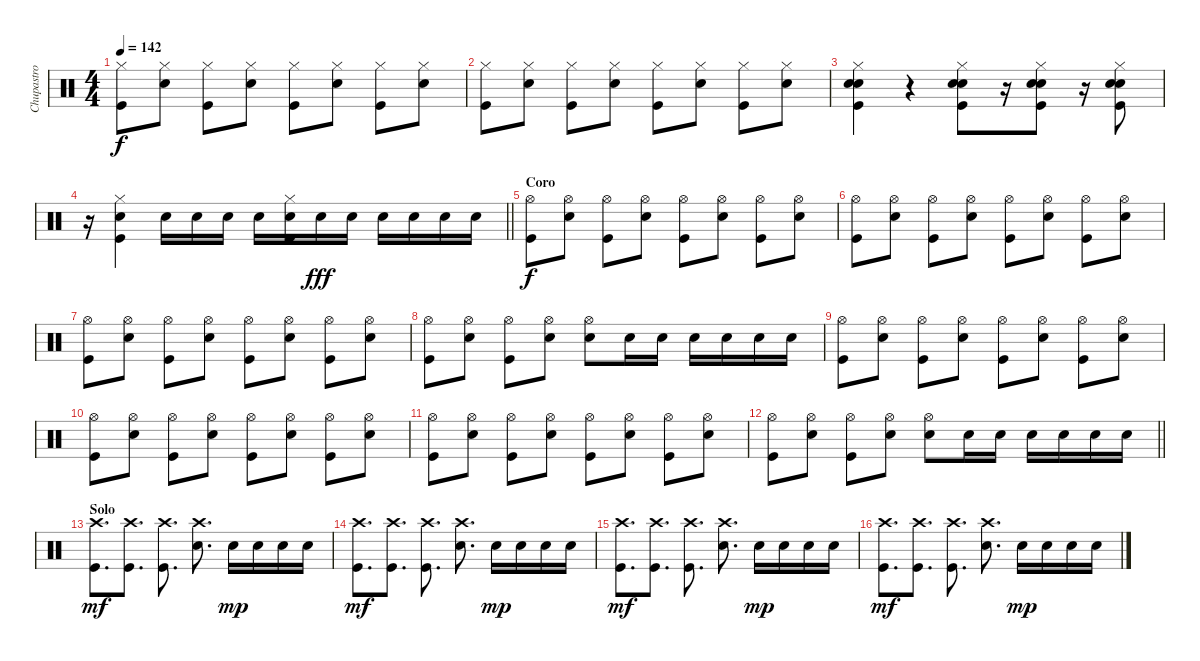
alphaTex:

\track ("Chupastro" "Chupastro") {instrument percussion}
\staff {score}
\articulation defaults
\ts (4 4)
\tempo 142
\clef neutral
\ks c
("Hi-Hat (closed)" "Kick (hit)").8{dy f} ("Hi-Hat (closed)" "Snare (hit) 2").8 ("Hi-Hat (closed)" "Kick (hit)").8 ("Hi-Hat (closed)" "Snare (hit) 2").8 ("Hi-Hat (closed)" "Kick (hit)").8 ("Hi-Hat (closed)" "Snare (hit) 2").8 ("Hi-Hat (closed)" "Kick (hit)").8 ("Hi-Hat (closed)" "Snare (hit) 2").8 |
("Hi-Hat (closed)" "Kick (hit)").8 ("Hi-Hat (closed)" "Snare (hit) 2").8 ("Hi-Hat (closed)" "Kick (hit)").8 ("Hi-Hat (closed)" "Snare (hit) 2").8 ("Hi-Hat (closed)" "Kick (hit)").8 ("Hi-Hat (closed)" "Snare (hit) 2").8 ("Hi-Hat (closed)" "Kick (hit)").8 ("Hi-Hat (closed)" "Snare (hit) 2").8 |
("Hi-Hat (closed)" "Snare (hit) 2" "Kick (hit)" "Snare (hit) 2").4 r.4 ("Hi-Hat (closed)" "Snare (hit) 2" "Kick (hit)" "Snare (hit) 2").8 r.16 ("Hi-Hat (closed)" "Snare (hit) 2" "Kick (hit)" "Snare (hit) 2").8 r.16 ("Hi-Hat (closed)" "Snare (hit) 2" "Kick (hit)" "Snare (hit) 2").8 |
\barLineRight lightlight
r.16 ("Hi-Hat (closed)" "Snare (hit) 2" "Kick (hit)").4 "Snare (hit) 2".16 "Snare (hit) 2".16 "Snare (hit) 2".16 "Snare (hit) 2".16 ("Hi-Hat (closed)" "Kick (hit)" "Snare (hit) 2").16 "Snare (hit) 2".16{dy fff} "Snare (hit) 2".16 "Snare (hit) 2".16 "Snare (hit) 2".16 "Snare (hit) 2".16 "Snare (hit) 2".16 |
\section ("" "Coro")
("Hi-Hat (open)" "Kick (hit)").8{dy f} ("Hi-Hat (open)" "Snare (hit) 2").8 ("Hi-Hat (open)" "Kick (hit)").8 ("Hi-Hat (open)" "Snare (hit) 2").8 ("Hi-Hat (open)" "Kick (hit)").8 ("Hi-Hat (open)" "Snare (hit) 2").8 ("Hi-Hat (open)" "Kick (hit)").8 ("Hi-Hat (open)" "Snare (hit) 2").8 |
("Hi-Hat (open)" "Kick (hit)").8 ("Hi-Hat (open)" "Snare (hit) 2").8 ("Hi-Hat (open)" "Kick (hit)").8 ("Hi-Hat (open)" "Snare (hit) 2").8 ("Hi-Hat (open)" "Kick (hit)").8 ("Hi-Hat (open)" "Snare (hit) 2").8 ("Hi-Hat (open)" "Kick (hit)").8 ("Hi-Hat (open)" "Snare (hit) 2").8 |
("Hi-Hat (open)" "Kick (hit)").8 ("Hi-Hat (open)" "Snare (hit) 2").8 ("Hi-Hat (open)" "Kick (hit)").8 ("Hi-Hat (open)" "Snare (hit) 2").8 ("Hi-Hat (open)" "Kick (hit)").8 ("Hi-Hat (open)" "Snare (hit) 2").8 ("Hi-Hat (open)" "Kick (hit)").8 ("Hi-Hat (open)" "Snare (hit) 2").8 |
("Hi-Hat (open)" "Kick (hit)").8 ("Hi-Hat (open)" "Snare (hit) 2").8 ("Hi-Hat (open)" "Kick (hit)").8 ("Hi-Hat (open)" "Snare (hit) 2").8 ("Hi-Hat (open)" "Snare (hit) 2").8 "Snare (hit) 2".16 "Snare (hit) 2".16 "Snare (hit) 2".16 "Snare (hit) 2".16 "Snare (hit) 2".16 "Snare (hit) 2".16 |
("Hi-Hat (open)" "Kick (hit)").8 ("Hi-Hat (open)" "Snare (hit) 2").8 ("Hi-Hat (open)" "Kick (hit)").8 ("Hi-Hat (open)" "Snare (hit) 2").8 ("Hi-Hat (open)" "Kick (hit)").8 ("Hi-Hat (open)" "Snare (hit) 2").8 ("Hi-Hat (open)" "Kick (hit)").8 ("Hi-Hat (open)" "Snare (hit) 2").8 |
("Hi-Hat (open)" "Kick (hit)").8 ("Hi-Hat (open)" "Snare (hit) 2").8 ("Hi-Hat (open)" "Kick (hit)").8 ("Hi-Hat (open)" "Snare (hit) 2").8 ("Hi-Hat (open)" "Kick (hit)").8 ("Hi-Hat (open)" "Snare (hit) 2").8 ("Hi-Hat (open)" "Kick (hit)").8 ("Hi-Hat (open)" "Snare (hit) 2").8 |
("Hi-Hat (open)" "Kick (hit)").8 ("Hi-Hat (open)" "Snare (hit) 2").8 ("Hi-Hat (open)" "Kick (hit)").8 ("Hi-Hat (open)" "Snare (hit) 2").8 ("Hi-Hat (open)" "Kick (hit)").8 ("Hi-Hat (open)" "Snare (hit) 2").8 ("Hi-Hat (open)" "Kick (hit)").8 ("Hi-Hat (open)" "Snare (hit) 2").8 |
\barLineRight lightlight
("Hi-Hat (open)" "Kick (hit)").8 ("Hi-Hat (open)" "Snare (hit) 2").8 ("Hi-Hat (open)" "Kick (hit)").8 ("Hi-Hat (open)" "Snare (hit) 2").8 ("Hi-Hat (open)" "Snare (hit) 2").8 "Snare (hit) 2".16 "Snare (hit) 2".16 "Snare (hit) 2".16 "Snare (hit) 2".16 "Snare (hit) 2".16 "Snare (hit) 2".16 |
\section ("" "Solo")
("Crash high (hit)" "Kick (hit)").8{d dy mf} ("Crash high (hit)" "Kick (hit)").8{d} ("Crash high (hit)" "Kick (hit)").8{d} ("Crash high (hit)" "Snare (hit) 2").8{d} "Snare (hit) 2".16{dy mp} "Snare (hit) 2".16 "Snare (hit) 2".16 "Snare (hit) 2".16 |
("Crash high (hit)" "Kick (hit)").8{d dy mf} ("Crash high (hit)" "Kick (hit)").8{d} ("Crash high (hit)" "Kick (hit)").8{d} ("Crash high (hit)" "Snare (hit) 2").8{d} "Snare (hit) 2".16{dy mp} "Snare (hit) 2".16 "Snare (hit) 2".16 "Snare (hit) 2".16 |
("Crash high (hit)" "Kick (hit)").8{d dy mf} ("Crash high (hit)" "Kick (hit)").8{d} ("Crash high (hit)" "Kick (hit)").8{d} ("Crash high (hit)" "Snare (hit) 2").8{d} "Snare (hit) 2".16{dy mp} "Snare (hit) 2".16 "Snare (hit) 2".16 "Snare (hit) 2".16 |
("Crash high (hit)" "Kick (hit)").8{d dy mf} ("Crash high (hit)" "Kick (hit)").8{d} ("Crash high (hit)" "Kick (hit)").8{d} ("Crash high (hit)" "Snare (hit) 2").8{d} "Snare (hit) 2".16{dy mp} "Snare (hit) 2".16 "Snare (hit) 2".16 "Snare (hit) 2".16
